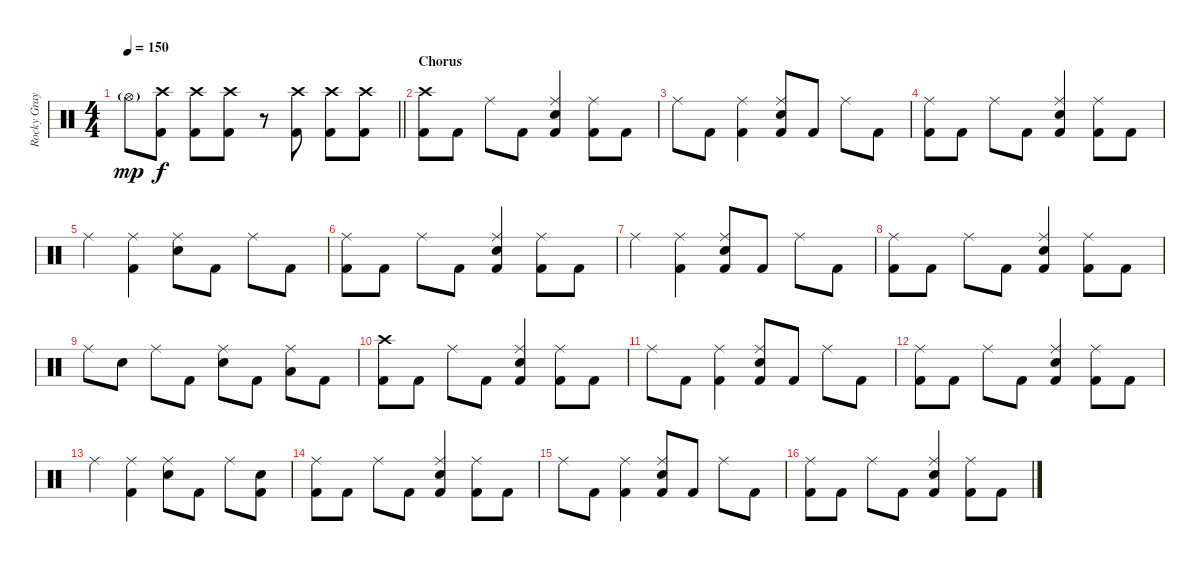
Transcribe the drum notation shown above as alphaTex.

\track ("Rocky Gray" "Rocky Gray") {instrument percussion}
\staff {score}
\articulation defaults
\ts (4 4)
\tempo 150
\clef neutral
\barLineRight lightlight
\ks c "Hi-Hat (open)"{g}.8{dy mp}
("Crash high (hit)" "Kick (hit) 2").8{dy f} ("Crash high (hit)" "Kick (hit) 2").8 ("Crash high (hit)" "Kick (hit) 2").8 r.8 ("Crash high (hit)" "Kick (hit) 2").8 ("Crash high (hit)" "Kick (hit) 2").8 ("Crash high (hit)" "Kick (hit) 2").8 |
\section ("" "Chorus")
("Crash high (hit)" "Kick (hit) 2").8 "Kick (hit) 2".8 "Ride (middle)".8 "Kick (hit) 2".8 ("Ride (middle)" "Snare (hit) 2" "Kick (hit) 2").4 ("Ride (middle)" "Kick (hit) 2").8 "Kick (hit) 2".8 |
"Ride (middle)".8 "Kick (hit) 2".8 ("Ride (middle)" "Kick (hit) 2").4 ("Ride (middle)" "Snare (hit) 2" "Kick (hit) 2").8 "Kick (hit) 2".8 "Ride (middle)".8 "Kick (hit) 2".8 |
("Ride (middle)" "Kick (hit) 2").8 "Kick (hit) 2".8 "Ride (middle)".8 "Kick (hit) 2".8 ("Ride (middle)" "Snare (hit) 2" "Kick (hit) 2").4 ("Ride (middle)" "Kick (hit) 2").8 "Kick (hit) 2".8 |
"Ride (middle)".4 ("Ride (middle)" "Kick (hit) 2").4 ("Ride (middle)" "Snare (hit) 2").8 "Kick (hit) 2".8 "Ride (middle)".8 "Kick (hit) 2".8 |
("Ride (middle)" "Kick (hit) 2").8 "Kick (hit) 2".8 "Ride (middle)".8 "Kick (hit) 2".8 ("Ride (middle)" "Snare (hit) 2" "Kick (hit) 2").4 ("Ride (middle)" "Kick (hit) 2").8 "Kick (hit) 2".8 |
"Ride (middle)".4 ("Ride (middle)" "Kick (hit) 2").4 ("Ride (middle)" "Snare (hit) 2" "Kick (hit) 2").8 "Kick (hit) 2".8 "Ride (middle)".8 "Kick (hit) 2".8 |
("Ride (middle)" "Kick (hit) 2").8 "Kick (hit) 2".8 "Ride (middle)".8 "Kick (hit) 2".8 ("Ride (middle)" "Snare (hit) 2" "Kick (hit) 2").4 ("Ride (middle)" "Kick (hit) 2").8 "Kick (hit) 2".8 |
"Ride (middle)".8 "Snare (hit) 2".8 "Ride (middle)".8 "Kick (hit) 2".8 ("Ride (middle)" "Snare (hit) 2").8 "Kick (hit) 2".8 ("Ride (middle)" "Low Tom (hit)").8 "Kick (hit) 2".8 |
("Crash high (hit)" "Kick (hit) 2").8 "Kick (hit) 2".8 "Ride (middle)".8 "Kick (hit) 2".8 ("Ride (middle)" "Snare (hit) 2" "Kick (hit) 2").4 ("Ride (middle)" "Kick (hit) 2").8 "Kick (hit) 2".8 |
"Ride (middle)".8 "Kick (hit) 2".8 ("Ride (middle)" "Kick (hit) 2").4 ("Ride (middle)" "Snare (hit) 2" "Kick (hit) 2").8 "Kick (hit) 2".8 "Ride (middle)".8 "Kick (hit) 2".8 |
("Ride (middle)" "Kick (hit) 2").8 "Kick (hit) 2".8 "Ride (middle)".8 "Kick (hit) 2".8 ("Ride (middle)" "Snare (hit) 2" "Kick (hit) 2").4 ("Ride (middle)" "Kick (hit) 2").8 "Kick (hit) 2".8 |
"Ride (middle)".4 ("Ride (middle)" "Kick (hit) 2").4 ("Ride (middle)" "Snare (hit) 2").8 "Kick (hit) 2".8 "Ride (middle)".8 ("Snare (hit) 2" "Kick (hit) 2").8 |
("Ride (middle)" "Kick (hit) 2").8 "Kick (hit) 2".8 "Ride (middle)".8 "Kick (hit) 2".8 ("Ride (middle)" "Snare (hit) 2" "Kick (hit) 2").4 ("Ride (middle)" "Kick (hit) 2").8 "Kick (hit) 2".8 |
"Ride (middle)".8 "Kick (hit) 2".8 ("Ride (middle)" "Kick (hit) 2").4 ("Ride (middle)" "Snare (hit) 2" "Kick (hit) 2").8 "Kick (hit) 2".8 "Ride (middle)".8 "Kick (hit) 2".8 |
("Ride (middle)" "Kick (hit) 2").8 "Kick (hit) 2".8 "Ride (middle)".8 "Kick (hit) 2".8 ("Ride (middle)" "Snare (hit) 2" "Kick (hit) 2").4 ("Ride (middle)" "Kick (hit) 2").8 "Kick (hit) 2".8
